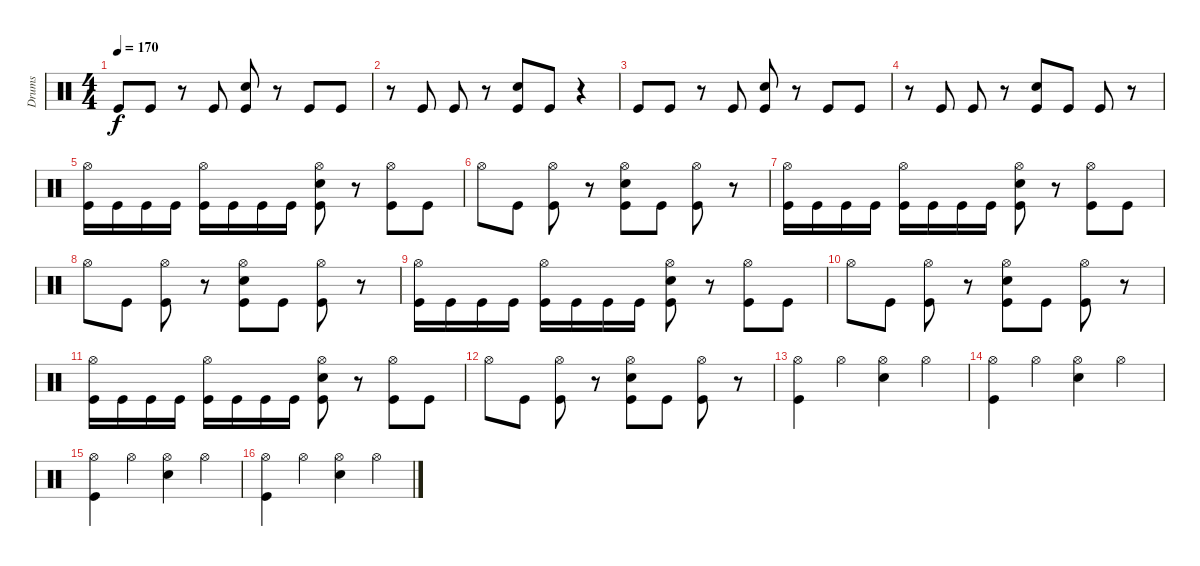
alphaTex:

\track ("Drums" "Drums") {instrument percussion}
\staff {score}
\articulation defaults
\ts (4 4)
\tempo 170
\clef neutral
\ks c "Kick (hit)".8{dy f} "Kick (hit)".8
r.8 "Kick (hit)".8 ("Kick (hit)" "Snare (hit) 2").8 r.8 "Kick (hit)".8 "Kick (hit)".8 |
r.8 "Kick (hit)".8 "Kick (hit)".8 r.8 ("Snare (hit) 2" "Kick (hit)").8 "Kick (hit)".8 r.4 |
"Kick (hit)".8 "Kick (hit)".8 r.8 "Kick (hit)".8 ("Snare (hit) 2" "Kick (hit)").8 r.8 "Kick (hit)".8 "Kick (hit)".8 |
r.8 "Kick (hit)".8 "Kick (hit)".8 r.8 ("Snare (hit) 2" "Kick (hit)").8 "Kick (hit)".8 "Kick (hit)".8 r.8 |
("Kick (hit)" "Hi-Hat (open)").16 "Kick (hit)".16 "Kick (hit)".16 "Kick (hit)".16 ("Kick (hit)" "Hi-Hat (open)").16 "Kick (hit)".16 "Kick (hit)".16 "Kick (hit)".16 ("Kick (hit)" "Hi-Hat (open)" "Snare (hit) 2").8 r.8 ("Kick (hit)" "Hi-Hat (open)").8 "Kick (hit)".8 |
"Hi-Hat (open)".8 "Kick (hit)".8 ("Kick (hit)" "Hi-Hat (open)").8 r.8 ("Kick (hit)" "Hi-Hat (open)" "Snare (hit) 2").8 "Kick (hit)".8 ("Kick (hit)" "Hi-Hat (open)").8 r.8 |
("Kick (hit)" "Hi-Hat (open)").16 "Kick (hit)".16 "Kick (hit)".16 "Kick (hit)".16 ("Kick (hit)" "Hi-Hat (open)").16 "Kick (hit)".16 "Kick (hit)".16 "Kick (hit)".16 ("Kick (hit)" "Hi-Hat (open)" "Snare (hit) 2").8 r.8 ("Kick (hit)" "Hi-Hat (open)").8 "Kick (hit)".8 |
"Hi-Hat (open)".8 "Kick (hit)".8 ("Kick (hit)" "Hi-Hat (open)").8 r.8 ("Kick (hit)" "Hi-Hat (open)" "Snare (hit) 2").8 "Kick (hit)".8 ("Kick (hit)" "Hi-Hat (open)").8 r.8 |
("Kick (hit)" "Hi-Hat (open)").16 "Kick (hit)".16 "Kick (hit)".16 "Kick (hit)".16 ("Kick (hit)" "Hi-Hat (open)").16 "Kick (hit)".16 "Kick (hit)".16 "Kick (hit)".16 ("Kick (hit)" "Hi-Hat (open)" "Snare (hit) 2").8 r.8 ("Kick (hit)" "Hi-Hat (open)").8 "Kick (hit)".8 |
"Hi-Hat (open)".8 "Kick (hit)".8 ("Kick (hit)" "Hi-Hat (open)").8 r.8 ("Kick (hit)" "Hi-Hat (open)" "Snare (hit) 2").8 "Kick (hit)".8 ("Kick (hit)" "Hi-Hat (open)").8 r.8 |
("Kick (hit)" "Hi-Hat (open)").16 "Kick (hit)".16 "Kick (hit)".16 "Kick (hit)".16 ("Kick (hit)" "Hi-Hat (open)").16 "Kick (hit)".16 "Kick (hit)".16 "Kick (hit)".16 ("Kick (hit)" "Hi-Hat (open)" "Snare (hit) 2").8 r.8 ("Kick (hit)" "Hi-Hat (open)").8 "Kick (hit)".8 |
"Hi-Hat (open)".8 "Kick (hit)".8 ("Kick (hit)" "Hi-Hat (open)").8 r.8 ("Kick (hit)" "Hi-Hat (open)" "Snare (hit) 2").8 "Kick (hit)".8 ("Kick (hit)" "Hi-Hat (open)").8 r.8 |
("Hi-Hat (open)" "Kick (hit)").4 "Hi-Hat (open)".4 ("Hi-Hat (open)" "Snare (hit) 2").4 "Hi-Hat (open)".4 |
("Hi-Hat (open)" "Kick (hit)").4 "Hi-Hat (open)".4 ("Hi-Hat (open)" "Snare (hit) 2").4 "Hi-Hat (open)".4 |
("Hi-Hat (open)" "Kick (hit)").4 "Hi-Hat (open)".4 ("Hi-Hat (open)" "Snare (hit) 2").4 "Hi-Hat (open)".4 |
("Hi-Hat (open)" "Kick (hit)").4 "Hi-Hat (open)".4 ("Hi-Hat (open)" "Snare (hit) 2").4 "Hi-Hat (open)".4
